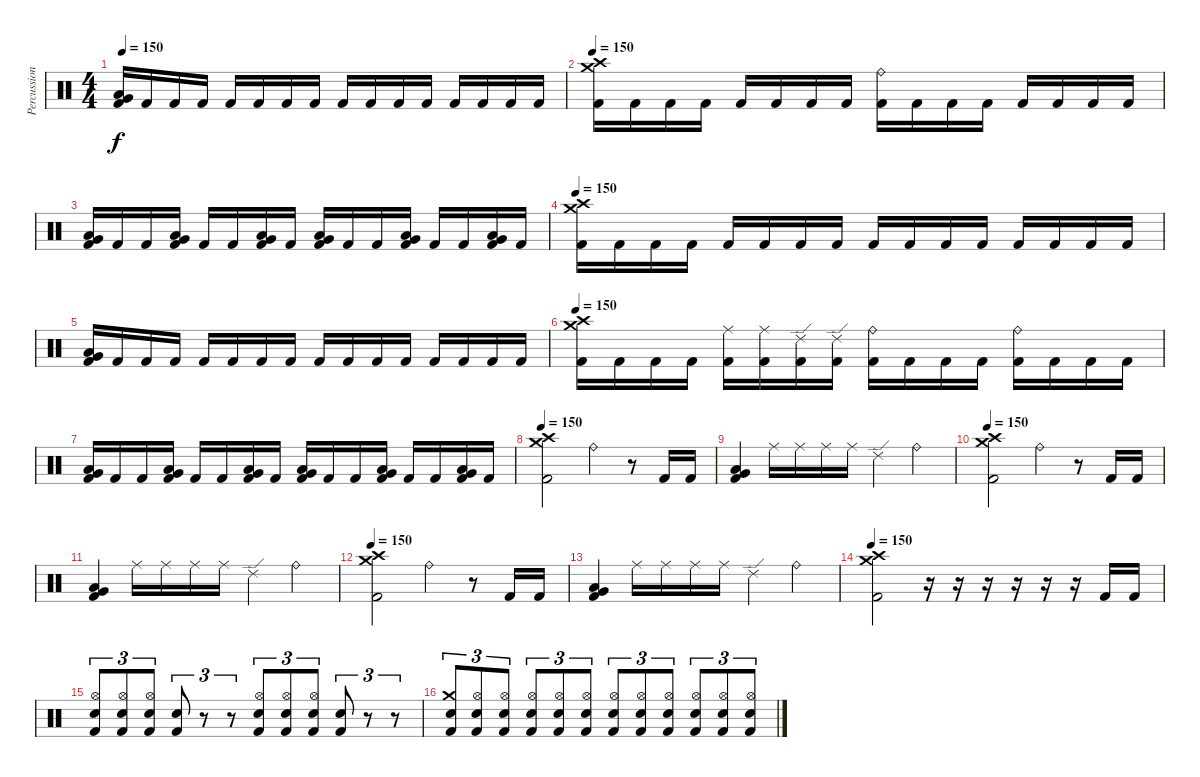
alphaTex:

\track ("Percussion" "Percussion") {instrument percussion}
\staff {score}
\articulation defaults
\ts (4 4)
\tempo 150
\clef neutral
\ks c
("Very Low Tom (hit)" "Low Floor Tom (hit)" "Kick (hit) 2").16{dy f} "Kick (hit) 2".16 "Kick (hit) 2".16 "Kick (hit) 2".16 "Kick (hit) 2".16 "Kick (hit) 2".16 "Kick (hit) 2".16 "Kick (hit) 2".16 "Kick (hit) 2".16 "Kick (hit) 2".16 "Kick (hit) 2".16 "Kick (hit) 2".16 "Kick (hit) 2".16 "Kick (hit) 2".16 "Kick (hit) 2".16 "Kick (hit) 2".16 |
\tempo 150
("Crash medium (hit)" "Crash high (hit)" "Kick (hit) 2").16 "Kick (hit) 2".16 "Kick (hit) 2".16 "Kick (hit) 2".16 "Kick (hit) 2".16 "Kick (hit) 2".16 "Kick (hit) 2".16 "Kick (hit) 2".16 ("Ride (bell)" "Kick (hit) 2").16 "Kick (hit) 2".16 "Kick (hit) 2".16 "Kick (hit) 2".16 "Kick (hit) 2".16 "Kick (hit) 2".16 "Kick (hit) 2".16 "Kick (hit) 2".16 |
("Very Low Tom (hit)" "Low Floor Tom (hit)" "Kick (hit) 2").16 "Kick (hit) 2".16 "Kick (hit) 2".16 ("Low Floor Tom (hit)" "Very Low Tom (hit)" "Kick (hit) 2").16 "Kick (hit) 2".16 "Kick (hit) 2".16 ("Very Low Tom (hit)" "Low Floor Tom (hit)" "Kick (hit) 2").16 "Kick (hit) 2".16 ("Very Low Tom (hit)" "Low Floor Tom (hit)" "Kick (hit) 2").16 "Kick (hit) 2".16 "Kick (hit) 2".16 ("Very Low Tom (hit)" "Low Floor Tom (hit)" "Kick (hit) 2").16 "Kick (hit) 2".16 "Kick (hit) 2".16 ("Very Low Tom (hit)" "Low Floor Tom (hit)" "Kick (hit) 2").16 "Kick (hit) 2".16 |
\tempo 150
("Crash medium (hit)" "Crash high (hit)" "Kick (hit) 2").16 "Kick (hit) 2".16 "Kick (hit) 2".16 "Kick (hit) 2".16 "Kick (hit) 2".16 "Kick (hit) 2".16 "Kick (hit) 2".16 "Kick (hit) 2".16 "Kick (hit) 2".16 "Kick (hit) 2".16 "Kick (hit) 2".16 "Kick (hit) 2".16 "Kick (hit) 2".16 "Kick (hit) 2".16 "Kick (hit) 2".16 "Kick (hit) 2".16 |
("Very Low Tom (hit)" "Low Floor Tom (hit)" "Kick (hit) 2").16 "Kick (hit) 2".16 "Kick (hit) 2".16 "Kick (hit) 2".16 "Kick (hit) 2".16 "Kick (hit) 2".16 "Kick (hit) 2".16 "Kick (hit) 2".16 "Kick (hit) 2".16 "Kick (hit) 2".16 "Kick (hit) 2".16 "Kick (hit) 2".16 "Kick (hit) 2".16 "Kick (hit) 2".16 "Kick (hit) 2".16 "Kick (hit) 2".16 |
\tempo 150
("Crash medium (hit)" "Crash high (hit)" "Kick (hit) 2").16 "Kick (hit) 2".16 "Kick (hit) 2".16 "Kick (hit) 2".16 ("Ride (middle)" "Kick (hit) 2").16 ("Ride (middle)" "Kick (hit) 2").16 ("Ride (edge) 2" "Kick (hit) 2").16 ("Ride (edge) 2" "Kick (hit) 2").16 ("Ride (bell)" "Kick (hit) 2").16 "Kick (hit) 2".16 "Kick (hit) 2".16 "Kick (hit) 2".16 ("Ride (bell)" "Kick (hit) 2").16 "Kick (hit) 2".16 "Kick (hit) 2".16 "Kick (hit) 2".16 |
("Very Low Tom (hit)" "Low Floor Tom (hit)" "Kick (hit) 2").16 "Kick (hit) 2".16 "Kick (hit) 2".16 ("Low Floor Tom (hit)" "Very Low Tom (hit)" "Kick (hit) 2").16 "Kick (hit) 2".16 "Kick (hit) 2".16 ("Very Low Tom (hit)" "Low Floor Tom (hit)" "Kick (hit) 2").16 "Kick (hit) 2".16 ("Very Low Tom (hit)" "Low Floor Tom (hit)" "Kick (hit) 2").16 "Kick (hit) 2".16 "Kick (hit) 2".16 ("Very Low Tom (hit)" "Low Floor Tom (hit)" "Kick (hit) 2").16 "Kick (hit) 2".16 "Kick (hit) 2".16 ("Very Low Tom (hit)" "Low Floor Tom (hit)" "Kick (hit) 2").16 "Kick (hit) 2".16 |
\tempo 150
("Crash medium (hit)" "Crash high (hit)" "Kick (hit) 2").2 "Ride (bell)".4 r.8 "Kick (hit) 2".16 "Kick (hit) 2".16 |
("Very Low Tom (hit)" "Low Floor Tom (hit)" "Kick (hit) 2").4 "Ride (middle)".16 "Ride (middle)".16 "Ride (middle)".16 "Ride (middle)".16 "Ride (edge) 2".4 "Ride (bell)".4 |
\tempo 150
("Crash medium (hit)" "Crash high (hit)" "Kick (hit) 2").2 "Ride (bell)".4 r.8 "Kick (hit) 2".16 "Kick (hit) 2".16 |
("Very Low Tom (hit)" "Low Floor Tom (hit)" "Kick (hit) 2").4 "Ride (middle)".16 "Ride (middle)".16 "Ride (middle)".16 "Ride (middle)".16 "Ride (edge) 2".4 "Ride (bell)".4 |
\tempo 150
("Crash medium (hit)" "Crash high (hit)" "Kick (hit) 2").2 "Ride (bell)".4 r.8 "Kick (hit) 2".16 "Kick (hit) 2".16 |
("Very Low Tom (hit)" "Low Floor Tom (hit)" "Kick (hit) 2").4 "Ride (middle)".16 "Ride (middle)".16 "Ride (middle)".16 "Ride (middle)".16 "Ride (edge) 2".4 "Ride (bell)".4 |
\tempo 150
("Crash medium (hit)" "Crash high (hit)" "Kick (hit) 2").2 r.16 r.16 r.16 r.16 r.16 r.16 "Kick (hit) 2".16 "Kick (hit) 2".16 |
("Hi-Hat (open)" "Electric Snare (hit)" "Kick (hit) 2").8{tu (3 2)} ("Hi-Hat (open)" "Electric Snare (hit)" "Kick (hit) 2").8{tu (3 2)} ("Hi-Hat (open)" "Electric Snare (hit)" "Kick (hit) 2").8{tu (3 2)} ("Electric Snare (hit)" "Kick (hit) 2").8{tu (3 2)} r.8{tu (3 2)} r.8{tu (3 2)} ("Hi-Hat (open)" "Electric Snare (hit)" "Kick (hit) 2").8{tu (3 2)} ("Hi-Hat (open)" "Electric Snare (hit)" "Kick (hit) 2").8{tu (3 2)} ("Hi-Hat (open)" "Electric Snare (hit)" "Kick (hit) 2").8{tu (3 2)} ("Electric Snare (hit)" "Kick (hit) 2").8{tu (3 2)} r.8{tu (3 2)} r.8{tu (3 2)} |
("Crash medium (hit)" "Electric Snare (hit)" "Kick (hit) 2").8{tu (3 2)} ("Hi-Hat (open)" "Electric Snare (hit)" "Kick (hit) 2").8{tu (3 2)} ("Hi-Hat (open)" "Electric Snare (hit)" "Kick (hit) 2").8{tu (3 2)} ("Hi-Hat (open)" "Electric Snare (hit)" "Kick (hit) 2").8{tu (3 2)} ("Hi-Hat (open)" "Electric Snare (hit)" "Kick (hit) 2").8{tu (3 2)} ("Hi-Hat (open)" "Electric Snare (hit)" "Kick (hit) 2").8{tu (3 2)} ("Hi-Hat (open)" "Electric Snare (hit)" "Kick (hit) 2").8{tu (3 2)} ("Hi-Hat (open)" "Electric Snare (hit)" "Kick (hit) 2").8{tu (3 2)} ("Hi-Hat (open)" "Electric Snare (hit)" "Kick (hit) 2").8{tu (3 2)} ("Hi-Hat (open)" "Electric Snare (hit)" "Kick (hit) 2").8{tu (3 2)} ("Hi-Hat (open)" "Electric Snare (hit)" "Kick (hit) 2").8{tu (3 2)} ("Hi-Hat (open)" "Electric Snare (hit)" "Kick (hit) 2").8{tu (3 2)}
